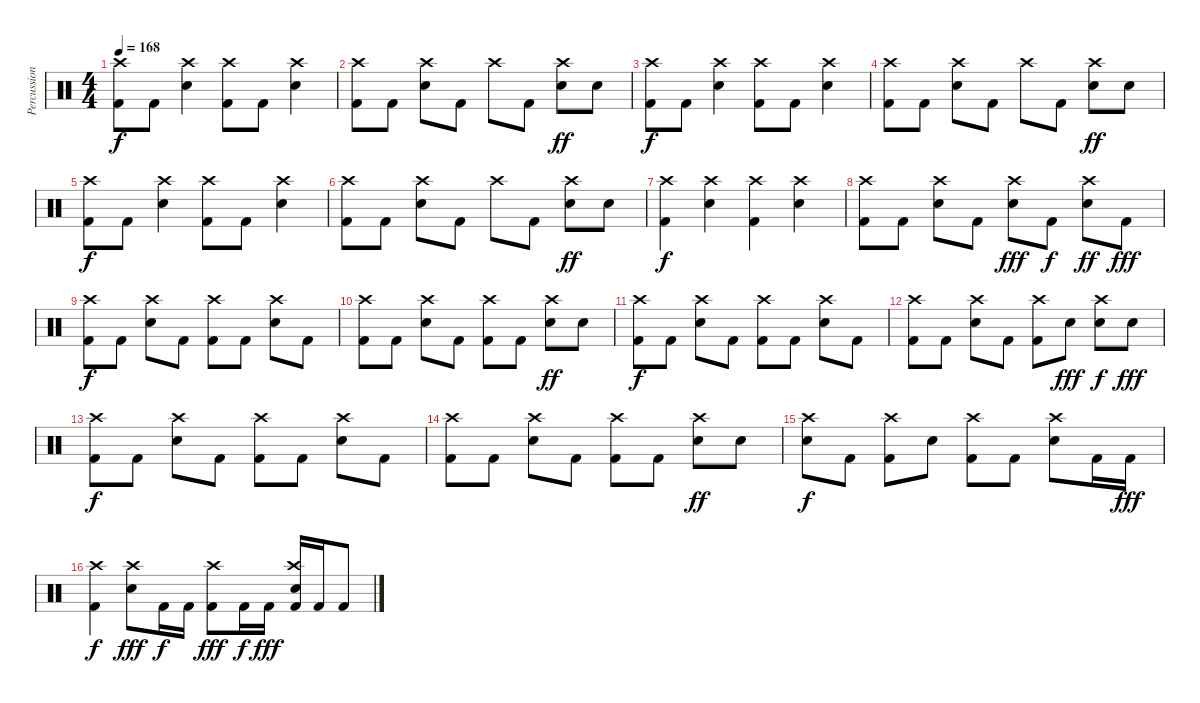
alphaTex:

\track ("Percussion" "Percussion") {instrument percussion}
\staff {score}
\articulation defaults
\ts (4 4)
\tempo 168
\clef neutral
\ks c
("Kick (hit) 2" "Crash high (hit)").8{dy f} "Kick (hit) 2".8 ("Snare (hit) 2" "Crash high (hit)").4 ("Kick (hit) 2" "Crash high (hit)").8 "Kick (hit) 2".8 ("Snare (hit) 2" "Crash high (hit)").4 |
("Kick (hit) 2" "Crash high (hit)").8 "Kick (hit) 2".8 ("Snare (hit) 2" "Crash high (hit)").8 "Kick (hit) 2".8 "Crash high (hit)".8 "Kick (hit) 2".8 ("Snare (hit) 2" "Crash high (hit)").8{dy ff} "Snare (hit) 2".8 |
("Kick (hit) 2" "Crash high (hit)").8{dy f} "Kick (hit) 2".8 ("Snare (hit) 2" "Crash high (hit)").4 ("Kick (hit) 2" "Crash high (hit)").8 "Kick (hit) 2".8 ("Snare (hit) 2" "Crash high (hit)").4 |
("Kick (hit) 2" "Crash high (hit)").8 "Kick (hit) 2".8 ("Snare (hit) 2" "Crash high (hit)").8 "Kick (hit) 2".8 "Crash high (hit)".8 "Kick (hit) 2".8 ("Snare (hit) 2" "Crash high (hit)").8{dy ff} "Snare (hit) 2".8 |
("Kick (hit) 2" "Crash high (hit)").8{dy f} "Kick (hit) 2".8 ("Snare (hit) 2" "Crash high (hit)").4 ("Kick (hit) 2" "Crash high (hit)").8 "Kick (hit) 2".8 ("Snare (hit) 2" "Crash high (hit)").4 |
("Kick (hit) 2" "Crash high (hit)").8 "Kick (hit) 2".8 ("Snare (hit) 2" "Crash high (hit)").8 "Kick (hit) 2".8 "Crash high (hit)".8 "Kick (hit) 2".8 ("Snare (hit) 2" "Crash high (hit)").8{dy ff} "Snare (hit) 2".8 |
("Kick (hit) 2" "Crash high (hit)").4{dy f} ("Snare (hit) 2" "Crash high (hit)").4 ("Kick (hit) 2" "Crash high (hit)").4 ("Snare (hit) 2" "Crash high (hit)").4 |
("Kick (hit) 2" "Crash high (hit)").8 "Kick (hit) 2".8 ("Snare (hit) 2" "Crash high (hit)").8 "Kick (hit) 2".8 ("Snare (hit) 2" "Crash high (hit)").8{dy fff} "Kick (hit) 2".8{dy f} ("Snare (hit) 2" "Crash high (hit)").8{dy ff} "Kick (hit) 2".8{dy fff} |
("Kick (hit) 2" "Crash high (hit)").8{dy f} "Kick (hit) 2".8 ("Snare (hit) 2" "Crash high (hit)").8 "Kick (hit) 2".8 ("Kick (hit) 2" "Crash high (hit)").8 "Kick (hit) 2".8 ("Snare (hit) 2" "Crash high (hit)").8 "Kick (hit) 2".8 |
("Kick (hit) 2" "Crash high (hit)").8 "Kick (hit) 2".8 ("Snare (hit) 2" "Crash high (hit)").8 "Kick (hit) 2".8 ("Kick (hit) 2" "Crash high (hit)").8 "Kick (hit) 2".8 ("Snare (hit) 2" "Crash high (hit)").8{dy ff} "Snare (hit) 2".8 |
("Kick (hit) 2" "Crash high (hit)").8{dy f} "Kick (hit) 2".8 ("Snare (hit) 2" "Crash high (hit)").8 "Kick (hit) 2".8 ("Kick (hit) 2" "Crash high (hit)").8 "Kick (hit) 2".8 ("Snare (hit) 2" "Crash high (hit)").8 "Kick (hit) 2".8 |
("Kick (hit) 2" "Crash high (hit)").8 "Kick (hit) 2".8 ("Snare (hit) 2" "Crash high (hit)").8 "Kick (hit) 2".8 ("Kick (hit) 2" "Crash high (hit)").8 "Snare (hit) 2".8{dy fff} ("Snare (hit) 2" "Crash high (hit)").8{dy f} "Snare (hit) 2".8{dy fff} |
("Kick (hit) 2" "Crash high (hit)").8{dy f} "Kick (hit) 2".8 ("Snare (hit) 2" "Crash high (hit)").8 "Kick (hit) 2".8 ("Kick (hit) 2" "Crash high (hit)").8 "Kick (hit) 2".8 ("Snare (hit) 2" "Crash high (hit)").8 "Kick (hit) 2".8 |
("Kick (hit) 2" "Crash high (hit)").8 "Kick (hit) 2".8 ("Snare (hit) 2" "Crash high (hit)").8 "Kick (hit) 2".8 ("Kick (hit) 2" "Crash high (hit)").8 "Kick (hit) 2".8 ("Snare (hit) 2" "Crash high (hit)").8{dy ff} "Snare (hit) 2".8 |
("Snare (hit) 2" "Crash high (hit)").8{dy f} "Kick (hit) 2".8 ("Kick (hit) 2" "Crash high (hit)").8 "Snare (hit) 2".8 ("Kick (hit) 2" "Crash high (hit)").8 "Kick (hit) 2".8 ("Snare (hit) 2" "Crash high (hit)").8 "Kick (hit) 2".16 "Kick (hit) 2".16{dy fff} |
("Kick (hit) 2" "Crash high (hit)").4{dy f} ("Snare (hit) 2" "Crash high (hit)").8{dy fff} "Kick (hit) 2".16{dy f} "Kick (hit) 2".16 ("Kick (hit) 2" "Crash high (hit)").8{dy fff} "Kick (hit) 2".16{dy f} "Kick (hit) 2".16{dy fff} ("Kick (hit) 2" "Snare (hit) 2" "Crash high (hit)").16 "Kick (hit) 2".16 "Kick (hit) 2".8
